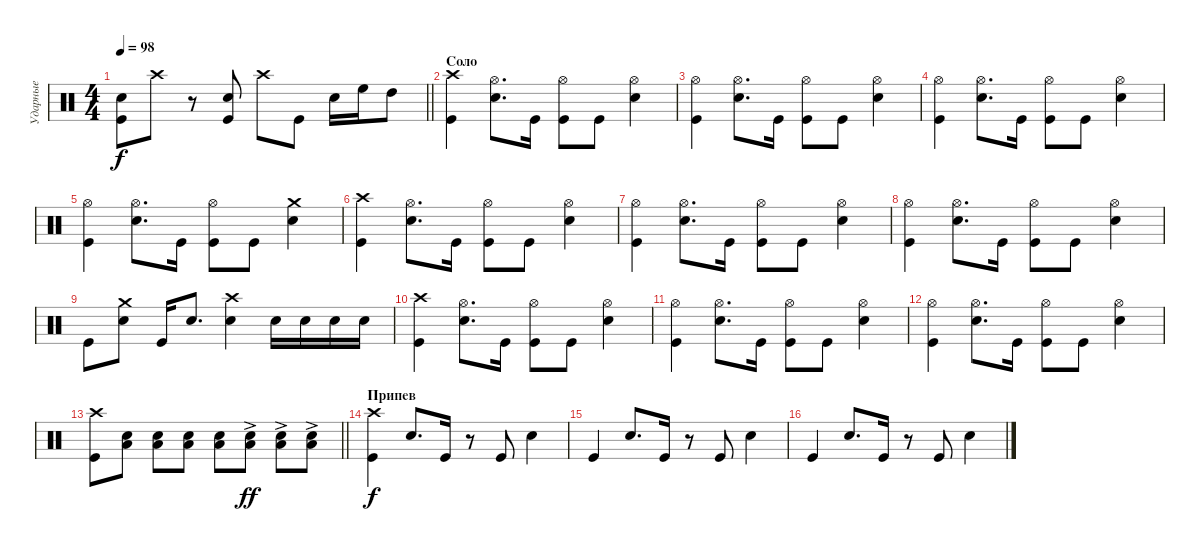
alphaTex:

\track ("Ударные" "Ударные") {instrument percussion}
\staff {score}
\articulation defaults
\ts (4 4)
\tempo 98
\clef neutral
\barLineRight lightlight
\ks c
("Snare (hit) 2" "Kick (hit)").8{dy f} "Crash high (hit)".8 r.8 ("Snare (hit) 2" "Kick (hit)").8 "Crash high (hit)".8 "Kick (hit)".8 "Snare (hit) 2".16 "High Floor Tom (hit)".16 "High Tom (hit)".8 |
\section ("" "Соло")
("Crash high (hit)" "Kick (hit)").4 ("Hi-Hat (open)" "Snare (hit) 2").8{d} "Kick (hit)".16 ("Hi-Hat (open)" "Kick (hit)").8 "Kick (hit)".8 ("Hi-Hat (open)" "Snare (hit) 2").4 |
("Hi-Hat (open)" "Kick (hit)").4 ("Hi-Hat (open)" "Snare (hit) 2").8{d} "Kick (hit)".16 ("Hi-Hat (open)" "Kick (hit)").8 "Kick (hit)".8 ("Hi-Hat (open)" "Snare (hit) 2").4 |
("Hi-Hat (open)" "Kick (hit)").4 ("Hi-Hat (open)" "Snare (hit) 2").8{d} "Kick (hit)".16 ("Hi-Hat (open)" "Kick (hit)").8 "Kick (hit)".8 ("Hi-Hat (open)" "Snare (hit) 2").4 |
("Hi-Hat (open)" "Kick (hit)").4 ("Hi-Hat (open)" "Snare (hit) 2").8{d} "Kick (hit)".16 ("Hi-Hat (open)" "Kick (hit)").8 "Kick (hit)".8 ("Crash medium (hit)" "Snare (hit) 2").4 |
("Crash high (hit)" "Kick (hit)").4 ("Hi-Hat (open)" "Snare (hit) 2").8{d} "Kick (hit)".16 ("Hi-Hat (open)" "Kick (hit)").8 "Kick (hit)".8 ("Hi-Hat (open)" "Snare (hit) 2").4 |
("Hi-Hat (open)" "Kick (hit)").4 ("Hi-Hat (open)" "Snare (hit) 2").8{d} "Kick (hit)".16 ("Hi-Hat (open)" "Kick (hit)").8 "Kick (hit)".8 ("Hi-Hat (open)" "Snare (hit) 2").4 |
("Hi-Hat (open)" "Kick (hit)").4 ("Hi-Hat (open)" "Snare (hit) 2").8{d} "Kick (hit)".16 ("Hi-Hat (open)" "Kick (hit)").8 "Kick (hit)".8 ("Hi-Hat (open)" "Snare (hit) 2").4 |
"Kick (hit)".8 ("Crash medium (hit)" "Snare (hit) 2").8 "Kick (hit)".16 "Snare (hit) 2".8{d} ("Crash high (hit)" "Snare (hit) 2").4 "Snare (hit) 2".16 "Snare (hit) 2".16 "Snare (hit) 2".16 "Snare (hit) 2".16 |
("Crash high (hit)" "Kick (hit)").4 ("Hi-Hat (open)" "Snare (hit) 2").8{d} "Kick (hit)".16 ("Hi-Hat (open)" "Kick (hit)").8 "Kick (hit)".8 ("Hi-Hat (open)" "Snare (hit) 2").4 |
("Hi-Hat (open)" "Kick (hit)").4 ("Hi-Hat (open)" "Snare (hit) 2").8{d} "Kick (hit)".16 ("Hi-Hat (open)" "Kick (hit)").8 "Kick (hit)".8 ("Hi-Hat (open)" "Snare (hit) 2").4 |
("Hi-Hat (open)" "Kick (hit)").4 ("Hi-Hat (open)" "Snare (hit) 2").8{d} "Kick (hit)".16 ("Hi-Hat (open)" "Kick (hit)").8 "Kick (hit)".8 ("Hi-Hat (open)" "Snare (hit) 2").4 |
\barLineRight lightlight
("Crash high (hit)" "Kick (hit)").8 ("Snare (hit) 2" "Low Tom (hit)").8{volume 5} ("Snare (hit) 2" "Low Tom (hit)").8{volume 13} ("Snare (hit) 2" "Low Tom (hit)").8 ("Snare (hit) 2" "Low Tom (hit)").8 ("Snare (hit) 2"{ac} "Low Tom (hit)"{ac}).8{dy ff} ("Snare (hit) 2"{ac} "Low Tom (hit)"{ac}).8 ("Snare (hit) 2"{ac} "Low Tom (hit)"{ac}).8 |
\section ("" "Припев")
("Crash high (hit)" "Kick (hit)").4{dy f} "Snare (hit) 2".8{d} "Kick (hit)".16 r.8 "Kick (hit)".8 "Snare (hit) 2".4 |
"Kick (hit)".4 "Snare (hit) 2".8{d} "Kick (hit)".16 r.8 "Kick (hit)".8 "Snare (hit) 2".4 |
"Kick (hit)".4 "Snare (hit) 2".8{d} "Kick (hit)".16 r.8 "Kick (hit)".8 "Snare (hit) 2".4
